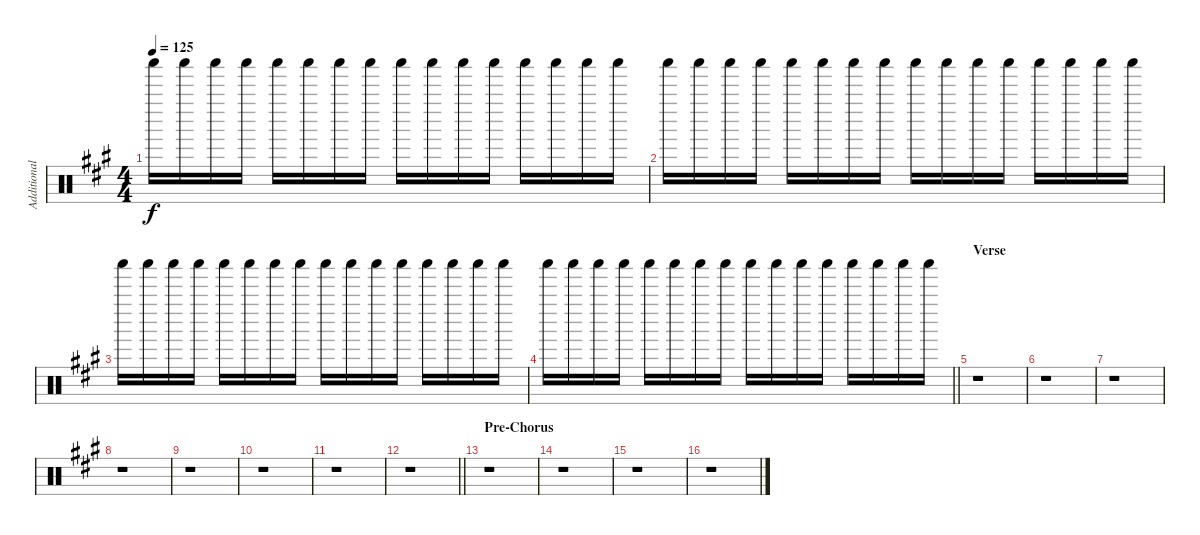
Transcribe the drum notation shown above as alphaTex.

\track ("Additional Percussion I" "Additional") {instrument percussion}
\staff {score}
\articulation defaults
\ts (4 4)
\tempo 125
\clef neutral
\ks a "Shaker (hit)".16{dy f} "Shaker (hit)".16 "Shaker (hit)".16 "Shaker (hit)".16 "Shaker (hit)".16 "Shaker (hit)".16 "Shaker (hit)".16 "Shaker (hit)".16 "Shaker (hit)".16 "Shaker (hit)".16 "Shaker (hit)".16 "Shaker (hit)".16 "Shaker (hit)".16 "Shaker (hit)".16 "Shaker (hit)".16 "Shaker (hit)".16
|
"Shaker (hit)".16 "Shaker (hit)".16 "Shaker (hit)".16 "Shaker (hit)".16 "Shaker (hit)".16 "Shaker (hit)".16 "Shaker (hit)".16 "Shaker (hit)".16 "Shaker (hit)".16 "Shaker (hit)".16 "Shaker (hit)".16 "Shaker (hit)".16 "Shaker (hit)".16 "Shaker (hit)".16 "Shaker (hit)".16 "Shaker (hit)".16 |
"Shaker (hit)".16 "Shaker (hit)".16 "Shaker (hit)".16 "Shaker (hit)".16 "Shaker (hit)".16 "Shaker (hit)".16 "Shaker (hit)".16 "Shaker (hit)".16 "Shaker (hit)".16 "Shaker (hit)".16 "Shaker (hit)".16 "Shaker (hit)".16 "Shaker (hit)".16 "Shaker (hit)".16 "Shaker (hit)".16 "Shaker (hit)".16 |
\barLineRight lightlight "Shaker (hit)".16 "Shaker (hit)".16 "Shaker (hit)".16 "Shaker (hit)".16 "Shaker (hit)".16 "Shaker (hit)".16 "Shaker (hit)".16 "Shaker (hit)".16 "Shaker (hit)".16 "Shaker (hit)".16 "Shaker (hit)".16 "Shaker (hit)".16 "Shaker (hit)".16 "Shaker (hit)".16 "Shaker (hit)".16 "Shaker (hit)".16
|
\section ("" "Verse")
r.1 |
r.1 |
r.1 |
r.1 |
r.1 |
r.1 |
r.1 |
\barLineRight lightlight
r.1 |
\section ("" "Pre-Chorus")
r.1 |
r.1 |
r.1 |
r.1
